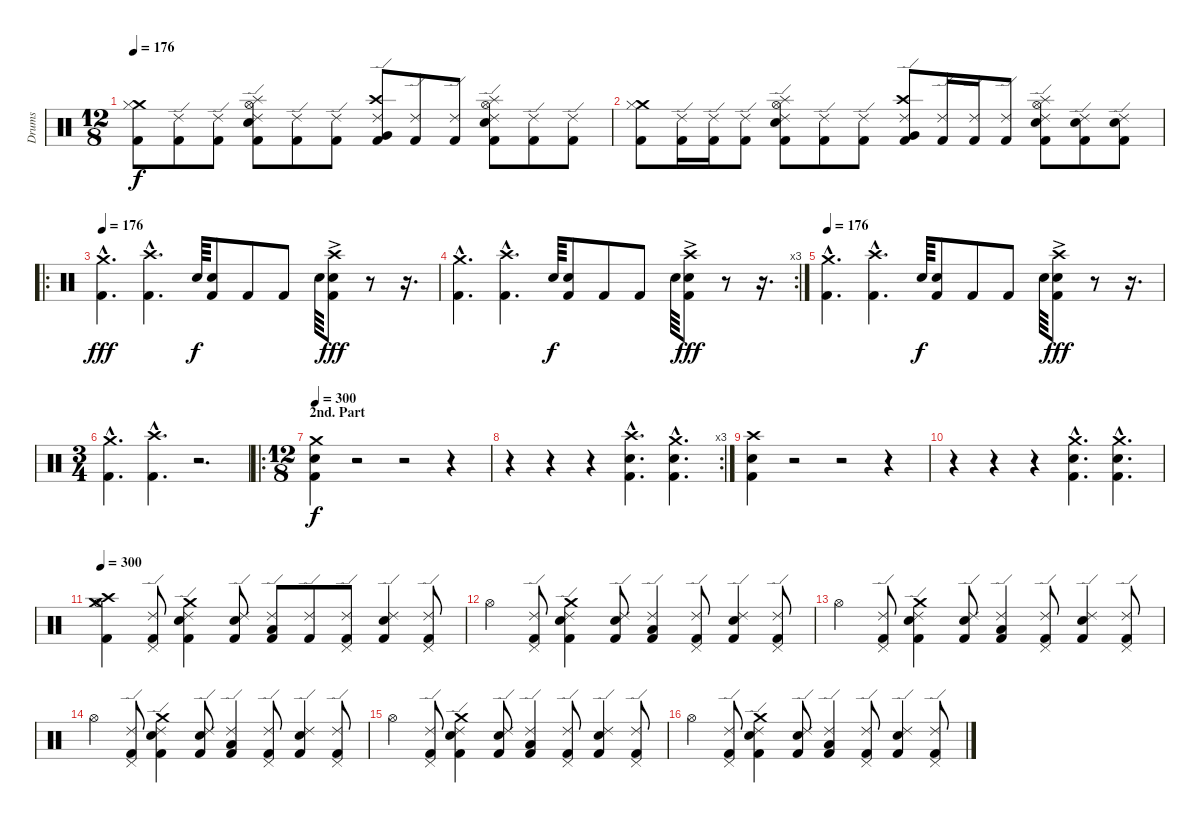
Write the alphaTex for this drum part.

\track ("Drums" "Drums") {instrument percussion}
\staff {score}
\articulation defaults
\ts (12 8)
\tempo 176
\clef neutral
\ks c
("Crash medium (hit)" "Hi-Hat (closed)" "Kick (hit) 2").8{dy f} ("Ride (edge) 2" "Kick (hit) 2").8 ("Ride (edge) 2" "Kick (hit) 2").8 ("Splash (hit)" "Snare (hit) 2" "Hi-Hat (open)" "Ride (edge) 2" "Kick (hit) 2").8 ("Ride (edge) 2" "Kick (hit) 2").8 ("Ride (edge) 2" "Kick (hit) 2").8 ("Crash high (hit)" "Very Low Tom (hit)" "Ride (edge) 2" "Kick (hit) 2").8 ("Ride (edge) 2" "Kick (hit) 2").8 ("Ride (edge) 2" "Kick (hit) 2").8 ("Splash (hit)" "Snare (hit) 2" "Hi-Hat (open)" "Ride (edge) 2" "Kick (hit) 2").8 ("Ride (edge) 2" "Kick (hit) 2").8 ("Ride (edge) 2" "Kick (hit) 2").8 |
("Crash medium (hit)" "Hi-Hat (closed)" "Kick (hit) 2").8 ("Ride (edge) 2" "Kick (hit) 2").16 ("Ride (edge) 2" "Kick (hit) 2").16 ("Ride (edge) 2" "Kick (hit) 2").8 ("Splash (hit)" "Snare (hit) 2" "Hi-Hat (open)" "Ride (edge) 2" "Kick (hit) 2").8 ("Ride (edge) 2" "Kick (hit) 2").8 ("Ride (edge) 2" "Kick (hit) 2").8 ("Crash high (hit)" "Very Low Tom (hit)" "Ride (edge) 2" "Kick (hit) 2").8 ("Ride (edge) 2" "Kick (hit) 2").16 ("Ride (edge) 2" "Kick (hit) 2").16 ("Ride (edge) 2" "Kick (hit) 2").8 ("Splash (hit)" "Snare (hit) 2" "Hi-Hat (open)" "Ride (edge) 2" "Kick (hit) 2").8 ("Snare (hit) 2" "Ride (edge) 2" "Kick (hit) 2").8 ("Snare (hit) 2" "Ride (edge) 2" "Kick (hit) 2").8 |
\ro
\tempo 176
("Crash medium (hit)"{hac} "Kick (hit) 2"{hac}).4{d dy fff} ("Crash high (hit)"{hac} "Kick (hit) 2"{hac}).4{d} "Snare (hit) 2".64{dy f} ("Snare (hit) 2" "Kick (hit) 2").8 "Kick (hit) 2".8 "Kick (hit) 2".8 "Snare (hit) 2".64 ("Crash high (hit)"{ac} "Snare (hit) 2" "Kick (hit) 2").8{dy fff} r.8 r.16{d} |
\rc 3
("Crash medium (hit)"{hac} "Kick (hit) 2"{hac}).4{d} ("Crash high (hit)"{hac} "Kick (hit) 2"{hac}).4{d} "Snare (hit) 2".64{dy f} ("Snare (hit) 2" "Kick (hit) 2").8 "Kick (hit) 2".8 "Kick (hit) 2".8 "Snare (hit) 2".64 ("Crash high (hit)"{ac} "Snare (hit) 2" "Kick (hit) 2").8{dy fff} r.8 r.16{d} |
\tempo 176
("Crash medium (hit)"{hac} "Kick (hit) 2"{hac}).4{d} ("Crash high (hit)"{hac} "Kick (hit) 2"{hac}).4{d} "Snare (hit) 2".64{dy f} ("Snare (hit) 2" "Kick (hit) 2").8 "Kick (hit) 2".8 "Kick (hit) 2".8 "Snare (hit) 2".64 ("Crash high (hit)"{ac} "Snare (hit) 2" "Kick (hit) 2").8{dy fff} r.8 r.16{d} |
\ts (3 4)
("Crash medium (hit)"{hac} "Kick (hit) 2"{hac}).4{d} ("Crash high (hit)"{hac} "Kick (hit) 2"{hac}).4{d} r.2{d} |
\ro
\ts (12 8)
\section ("" "2nd. Part")
\tempo 300
("Crash medium (hit)" "Snare (hit) 2" "Kick (hit) 2").4{dy f} r.2 r.2 r.4 |
\rc 3
r.4 r.4 r.4 ("Crash high (hit)"{hac} "Snare (hit) 2"{hac} "Kick (hit) 2"{hac}).4{d} ("Crash medium (hit)"{hac} "Snare (hit) 2"{hac} "Kick (hit) 2"{hac}).4{d} |
("Crash high (hit)" "Snare (hit) 2" "Kick (hit) 2").4 r.2 r.2 r.4 |
r.4 r.4 r.4 ("Crash medium (hit)"{hac} "Snare (hit) 2"{hac} "Kick (hit) 2"{hac}).4{d} ("Crash medium (hit)"{hac} "Snare (hit) 2"{hac} "Kick (hit) 2"{hac}).4{d} |
\tempo 300
("Crash high (hit)" "Crash medium (hit)" "Hi-Hat (open)" "Kick (hit) 2").4 ("Ride (edge) 2" "Pedal Hi-Hat (hit)" "Kick (hit) 2").8 ("Ride (edge) 2" "Crash medium (hit)" "Snare (hit) 2" "Kick (hit) 2").4 ("Ride (edge) 2" "Snare (hit) 2" "Kick (hit) 2").8 ("Ride (edge) 2" "Low Tom (hit)" "Kick (hit) 2").8 ("Ride (edge) 2" "Kick (hit) 2").8 ("Ride (edge) 2" "Pedal Hi-Hat (hit)" "Kick (hit) 2").8 ("Ride (edge) 2" "Snare (hit) 2" "Kick (hit) 2").4 ("Ride (edge) 2" "Pedal Hi-Hat (hit)" "Kick (hit) 2").8 |
"Hi-Hat (open)".4 ("Ride (edge) 2" "Pedal Hi-Hat (hit)" "Kick (hit) 2").8 ("Ride (edge) 2" "Crash medium (hit)" "Snare (hit) 2" "Kick (hit) 2").4 ("Ride (edge) 2" "Snare (hit) 2" "Kick (hit) 2").8 ("Ride (edge) 2" "Low Tom (hit)" "Kick (hit) 2").4 ("Ride (edge) 2" "Pedal Hi-Hat (hit)" "Kick (hit) 2").8 ("Ride (edge) 2" "Snare (hit) 2" "Kick (hit) 2").4 ("Ride (edge) 2" "Pedal Hi-Hat (hit)" "Kick (hit) 2").8 |
"Hi-Hat (open)".4 ("Ride (edge) 2" "Pedal Hi-Hat (hit)" "Kick (hit) 2").8 ("Ride (edge) 2" "Crash medium (hit)" "Snare (hit) 2" "Kick (hit) 2").4 ("Ride (edge) 2" "Snare (hit) 2" "Kick (hit) 2").8 ("Ride (edge) 2" "Low Tom (hit)" "Kick (hit) 2").4 ("Ride (edge) 2" "Pedal Hi-Hat (hit)" "Kick (hit) 2").8 ("Ride (edge) 2" "Snare (hit) 2" "Kick (hit) 2").4 ("Ride (edge) 2" "Pedal Hi-Hat (hit)" "Kick (hit) 2").8 |
"Hi-Hat (open)".4 ("Ride (edge) 2" "Pedal Hi-Hat (hit)" "Kick (hit) 2").8 ("Ride (edge) 2" "Crash medium (hit)" "Snare (hit) 2" "Kick (hit) 2").4 ("Ride (edge) 2" "Snare (hit) 2" "Kick (hit) 2").8 ("Ride (edge) 2" "Low Tom (hit)" "Kick (hit) 2").4 ("Ride (edge) 2" "Pedal Hi-Hat (hit)" "Kick (hit) 2").8 ("Ride (edge) 2" "Snare (hit) 2" "Kick (hit) 2").4 ("Ride (edge) 2" "Pedal Hi-Hat (hit)" "Kick (hit) 2").8 |
"Hi-Hat (open)".4 ("Ride (edge) 2" "Pedal Hi-Hat (hit)" "Kick (hit) 2").8 ("Ride (edge) 2" "Crash medium (hit)" "Snare (hit) 2" "Kick (hit) 2").4 ("Ride (edge) 2" "Snare (hit) 2" "Kick (hit) 2").8 ("Ride (edge) 2" "Low Tom (hit)" "Kick (hit) 2").4 ("Ride (edge) 2" "Pedal Hi-Hat (hit)" "Kick (hit) 2").8 ("Ride (edge) 2" "Snare (hit) 2" "Kick (hit) 2").4 ("Ride (edge) 2" "Pedal Hi-Hat (hit)" "Kick (hit) 2").8 |
"Hi-Hat (open)".4 ("Ride (edge) 2" "Pedal Hi-Hat (hit)" "Kick (hit) 2").8 ("Ride (edge) 2" "Crash medium (hit)" "Snare (hit) 2" "Kick (hit) 2").4 ("Ride (edge) 2" "Snare (hit) 2" "Kick (hit) 2").8 ("Ride (edge) 2" "Low Tom (hit)" "Kick (hit) 2").4 ("Ride (edge) 2" "Pedal Hi-Hat (hit)" "Kick (hit) 2").8 ("Ride (edge) 2" "Snare (hit) 2" "Kick (hit) 2").4 ("Ride (edge) 2" "Pedal Hi-Hat (hit)" "Kick (hit) 2").8
